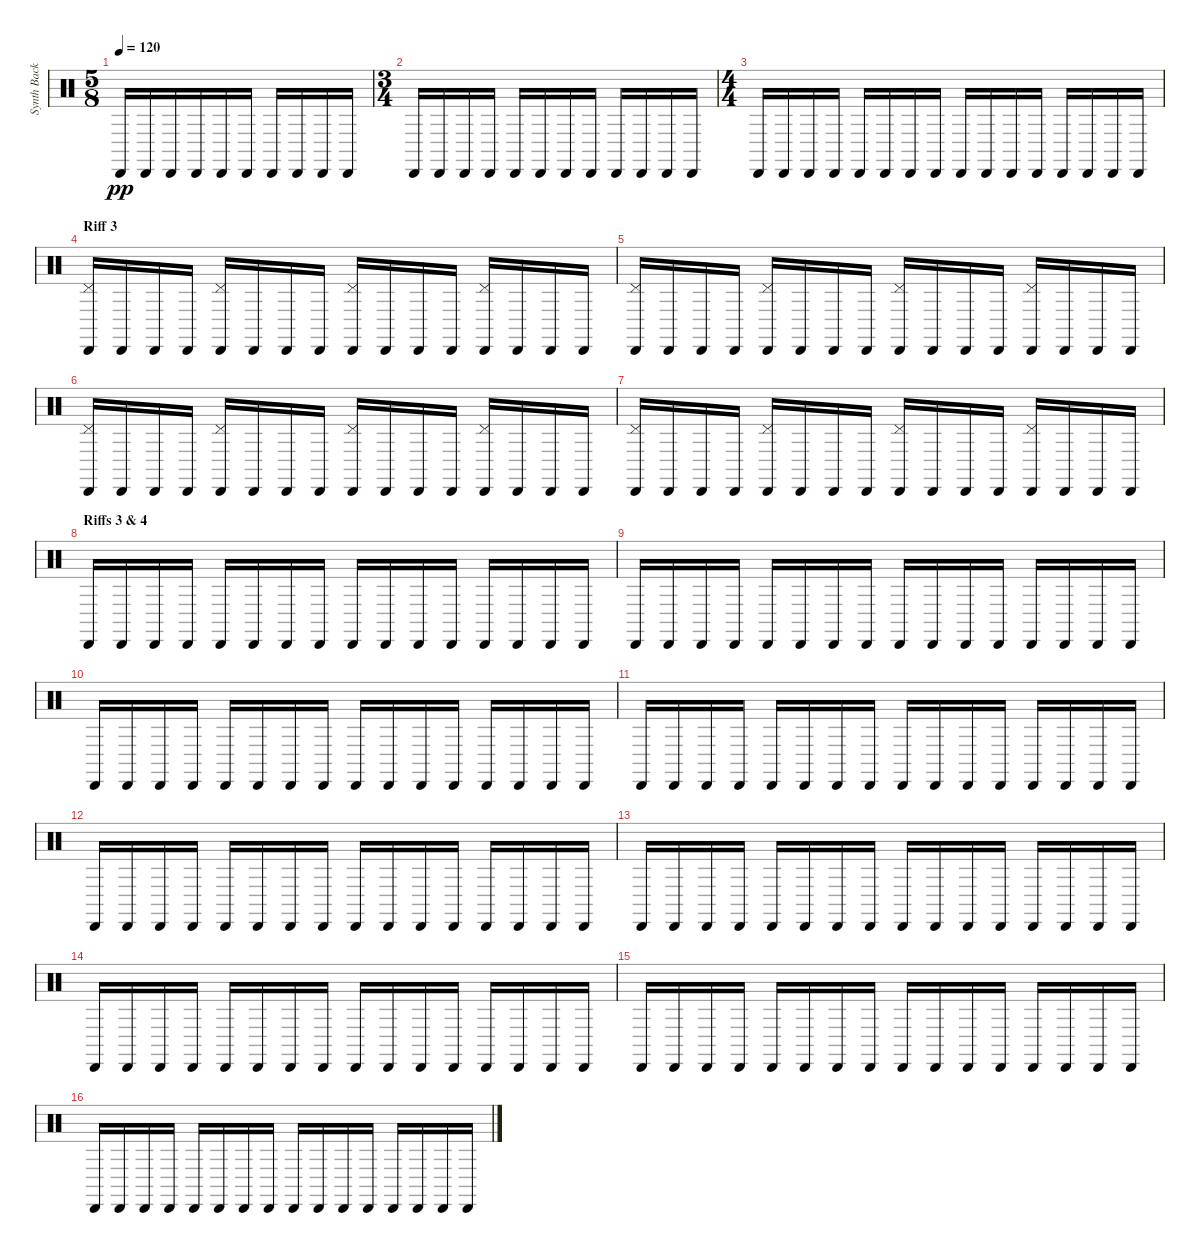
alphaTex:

\track ("Synth Background Rhythm" "Synth Back") {instrument percussion}
\staff {score}
\articulation defaults
\ts (5 8)
\tempo 120
\clef neutral
\ks c "Cabasa (hit)".16{dy pp} "Cabasa (hit)".16 "Cabasa (hit)".16 "Cabasa (hit)".16 "Cabasa (hit)".16 "Cabasa (hit)".16 "Cabasa (hit)".16 "Cabasa (hit)".16 "Cabasa (hit)".16 "Cabasa (hit)".16
|
\ts (3 4)
"Cabasa (hit)".16 "Cabasa (hit)".16 "Cabasa (hit)".16 "Cabasa (hit)".16 "Cabasa (hit)".16 "Cabasa (hit)".16 "Cabasa (hit)".16 "Cabasa (hit)".16 "Cabasa (hit)".16 "Cabasa (hit)".16 "Cabasa (hit)".16 "Cabasa (hit)".16 |
\ts (4 4)
"Cabasa (hit)".16 "Cabasa (hit)".16 "Cabasa (hit)".16 "Cabasa (hit)".16 "Cabasa (hit)".16 "Cabasa (hit)".16 "Cabasa (hit)".16 "Cabasa (hit)".16 "Cabasa (hit)".16 "Cabasa (hit)".16 "Cabasa (hit)".16 "Cabasa (hit)".16 "Cabasa (hit)".16 "Cabasa (hit)".16 "Cabasa (hit)".16 "Cabasa (hit)".16 |
\section ("" "Riff 3")
("Pedal Hi-Hat (hit)" "Cabasa (hit)").16 "Cabasa (hit)".16 "Cabasa (hit)".16 "Cabasa (hit)".16 ("Pedal Hi-Hat (hit)" "Cabasa (hit)").16 "Cabasa (hit)".16 "Cabasa (hit)".16 "Cabasa (hit)".16 ("Pedal Hi-Hat (hit)" "Cabasa (hit)").16 "Cabasa (hit)".16 "Cabasa (hit)".16 "Cabasa (hit)".16 ("Pedal Hi-Hat (hit)" "Cabasa (hit)").16 "Cabasa (hit)".16 "Cabasa (hit)".16 "Cabasa (hit)".16 |
("Pedal Hi-Hat (hit)" "Cabasa (hit)").16 "Cabasa (hit)".16 "Cabasa (hit)".16 "Cabasa (hit)".16 ("Pedal Hi-Hat (hit)" "Cabasa (hit)").16 "Cabasa (hit)".16 "Cabasa (hit)".16 "Cabasa (hit)".16 ("Pedal Hi-Hat (hit)" "Cabasa (hit)").16 "Cabasa (hit)".16 "Cabasa (hit)".16 "Cabasa (hit)".16 ("Pedal Hi-Hat (hit)" "Cabasa (hit)").16 "Cabasa (hit)".16 "Cabasa (hit)".16 "Cabasa (hit)".16 |
("Pedal Hi-Hat (hit)" "Cabasa (hit)").16 "Cabasa (hit)".16 "Cabasa (hit)".16 "Cabasa (hit)".16 ("Pedal Hi-Hat (hit)" "Cabasa (hit)").16 "Cabasa (hit)".16 "Cabasa (hit)".16 "Cabasa (hit)".16 ("Pedal Hi-Hat (hit)" "Cabasa (hit)").16 "Cabasa (hit)".16 "Cabasa (hit)".16 "Cabasa (hit)".16 ("Pedal Hi-Hat (hit)" "Cabasa (hit)").16 "Cabasa (hit)".16 "Cabasa (hit)".16 "Cabasa (hit)".16 |
("Pedal Hi-Hat (hit)" "Cabasa (hit)").16 "Cabasa (hit)".16 "Cabasa (hit)".16 "Cabasa (hit)".16 ("Pedal Hi-Hat (hit)" "Cabasa (hit)").16 "Cabasa (hit)".16 "Cabasa (hit)".16 "Cabasa (hit)".16 ("Pedal Hi-Hat (hit)" "Cabasa (hit)").16 "Cabasa (hit)".16 "Cabasa (hit)".16 "Cabasa (hit)".16 ("Pedal Hi-Hat (hit)" "Cabasa (hit)").16 "Cabasa (hit)".16 "Cabasa (hit)".16 "Cabasa (hit)".16 |
\section ("" "Riffs 3 & 4")
"Cabasa (hit)".16 "Cabasa (hit)".16 "Cabasa (hit)".16 "Cabasa (hit)".16 "Cabasa (hit)".16 "Cabasa (hit)".16 "Cabasa (hit)".16 "Cabasa (hit)".16 "Cabasa (hit)".16 "Cabasa (hit)".16 "Cabasa (hit)".16 "Cabasa (hit)".16 "Cabasa (hit)".16 "Cabasa (hit)".16 "Cabasa (hit)".16 "Cabasa (hit)".16 |
"Cabasa (hit)".16 "Cabasa (hit)".16 "Cabasa (hit)".16 "Cabasa (hit)".16 "Cabasa (hit)".16 "Cabasa (hit)".16 "Cabasa (hit)".16 "Cabasa (hit)".16 "Cabasa (hit)".16 "Cabasa (hit)".16 "Cabasa (hit)".16 "Cabasa (hit)".16 "Cabasa (hit)".16 "Cabasa (hit)".16 "Cabasa (hit)".16 "Cabasa (hit)".16 |
"Cabasa (hit)".16 "Cabasa (hit)".16 "Cabasa (hit)".16 "Cabasa (hit)".16 "Cabasa (hit)".16 "Cabasa (hit)".16 "Cabasa (hit)".16 "Cabasa (hit)".16 "Cabasa (hit)".16 "Cabasa (hit)".16 "Cabasa (hit)".16 "Cabasa (hit)".16 "Cabasa (hit)".16 "Cabasa (hit)".16 "Cabasa (hit)".16 "Cabasa (hit)".16 |
"Cabasa (hit)".16 "Cabasa (hit)".16 "Cabasa (hit)".16 "Cabasa (hit)".16 "Cabasa (hit)".16 "Cabasa (hit)".16 "Cabasa (hit)".16 "Cabasa (hit)".16 "Cabasa (hit)".16 "Cabasa (hit)".16 "Cabasa (hit)".16 "Cabasa (hit)".16 "Cabasa (hit)".16 "Cabasa (hit)".16 "Cabasa (hit)".16 "Cabasa (hit)".16 |
"Cabasa (hit)".16 "Cabasa (hit)".16 "Cabasa (hit)".16 "Cabasa (hit)".16 "Cabasa (hit)".16 "Cabasa (hit)".16 "Cabasa (hit)".16 "Cabasa (hit)".16 "Cabasa (hit)".16 "Cabasa (hit)".16 "Cabasa (hit)".16 "Cabasa (hit)".16 "Cabasa (hit)".16 "Cabasa (hit)".16 "Cabasa (hit)".16 "Cabasa (hit)".16 |
"Cabasa (hit)".16 "Cabasa (hit)".16 "Cabasa (hit)".16 "Cabasa (hit)".16 "Cabasa (hit)".16 "Cabasa (hit)".16 "Cabasa (hit)".16 "Cabasa (hit)".16 "Cabasa (hit)".16 "Cabasa (hit)".16 "Cabasa (hit)".16 "Cabasa (hit)".16 "Cabasa (hit)".16 "Cabasa (hit)".16 "Cabasa (hit)".16 "Cabasa (hit)".16 |
"Cabasa (hit)".16 "Cabasa (hit)".16 "Cabasa (hit)".16 "Cabasa (hit)".16 "Cabasa (hit)".16 "Cabasa (hit)".16 "Cabasa (hit)".16 "Cabasa (hit)".16 "Cabasa (hit)".16 "Cabasa (hit)".16 "Cabasa (hit)".16 "Cabasa (hit)".16 "Cabasa (hit)".16 "Cabasa (hit)".16 "Cabasa (hit)".16 "Cabasa (hit)".16 |
"Cabasa (hit)".16 "Cabasa (hit)".16 "Cabasa (hit)".16 "Cabasa (hit)".16 "Cabasa (hit)".16 "Cabasa (hit)".16 "Cabasa (hit)".16 "Cabasa (hit)".16 "Cabasa (hit)".16 "Cabasa (hit)".16 "Cabasa (hit)".16 "Cabasa (hit)".16 "Cabasa (hit)".16 "Cabasa (hit)".16 "Cabasa (hit)".16 "Cabasa (hit)".16 |
"Cabasa (hit)".16 "Cabasa (hit)".16 "Cabasa (hit)".16 "Cabasa (hit)".16 "Cabasa (hit)".16 "Cabasa (hit)".16 "Cabasa (hit)".16 "Cabasa (hit)".16 "Cabasa (hit)".16 "Cabasa (hit)".16 "Cabasa (hit)".16 "Cabasa (hit)".16 "Cabasa (hit)".16 "Cabasa (hit)".16 "Cabasa (hit)".16 "Cabasa (hit)".16
